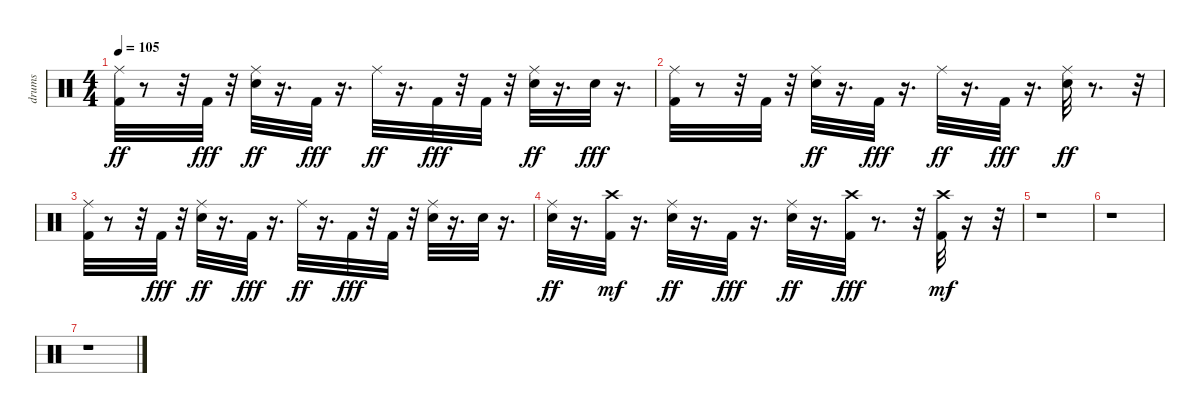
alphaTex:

\track ("drums" "drums") {instrument percussion}
\staff {score}
\articulation defaults
\ts (4 4)
\tempo 105
\clef neutral
\ks c
("Kick (hit) 2" "Ride (middle)").32{dy ff} r.8 r.32 "Kick (hit) 2".32{dy fff} r.32 ("Electric Snare (hit)" "Ride (middle)").32{dy ff} r.16{d} "Kick (hit) 2".32{dy fff} r.16{d} "Ride (middle)".32{dy ff} r.16{d} "Kick (hit) 2".32{dy fff} r.32 "Kick (hit) 2".32 r.32 ("Electric Snare (hit)" "Ride (middle)").32{dy ff} r.16{d} "Electric Snare (hit)".32{dy fff} r.16{d} |
("Ride (middle)" "Kick (hit) 2").32 r.8 r.32 "Kick (hit) 2".32 r.32 ("Electric Snare (hit)" "Ride (middle)").32{dy ff} r.16{d} "Kick (hit) 2".32{dy fff} r.16{d} "Ride (middle)".32{dy ff} r.16{d} "Kick (hit) 2".32{dy fff} r.16{d} ("Electric Snare (hit)" "Ride (middle)").32{dy ff} r.8{d} r.32 |
("Kick (hit) 2" "Ride (middle)").32 r.8 r.32 "Kick (hit) 2".32{dy fff} r.32 ("Electric Snare (hit)" "Ride (middle)").32{dy ff} r.16{d} "Kick (hit) 2".32{dy fff} r.16{d} "Ride (middle)".32{dy ff} r.16{d} "Kick (hit) 2".32{dy fff} r.32 "Kick (hit) 2".32 r.32 ("Ride (middle)" "Electric Snare (hit)").32 r.16{d} "Electric Snare (hit)".32 r.16{d} |
("Electric Snare (hit)" "Ride (middle)").32{dy ff} r.16{d} ("Kick (hit) 2" "Crash high (hit)").32{dy mf} r.16{d} ("Electric Snare (hit)" "Ride (middle)").32{dy ff} r.16{d} "Kick (hit) 2".32{dy fff} r.16{d} ("Electric Snare (hit)" "Ride (middle)").32{dy ff} r.16{d} ("Crash high (hit)" "Kick (hit) 2").32{dy fff} r.8{d} r.32 ("Kick (hit) 2" "Crash high (hit)").32{dy mf} r.16 r.32 |
r.1 |
r.1 |
r.1
